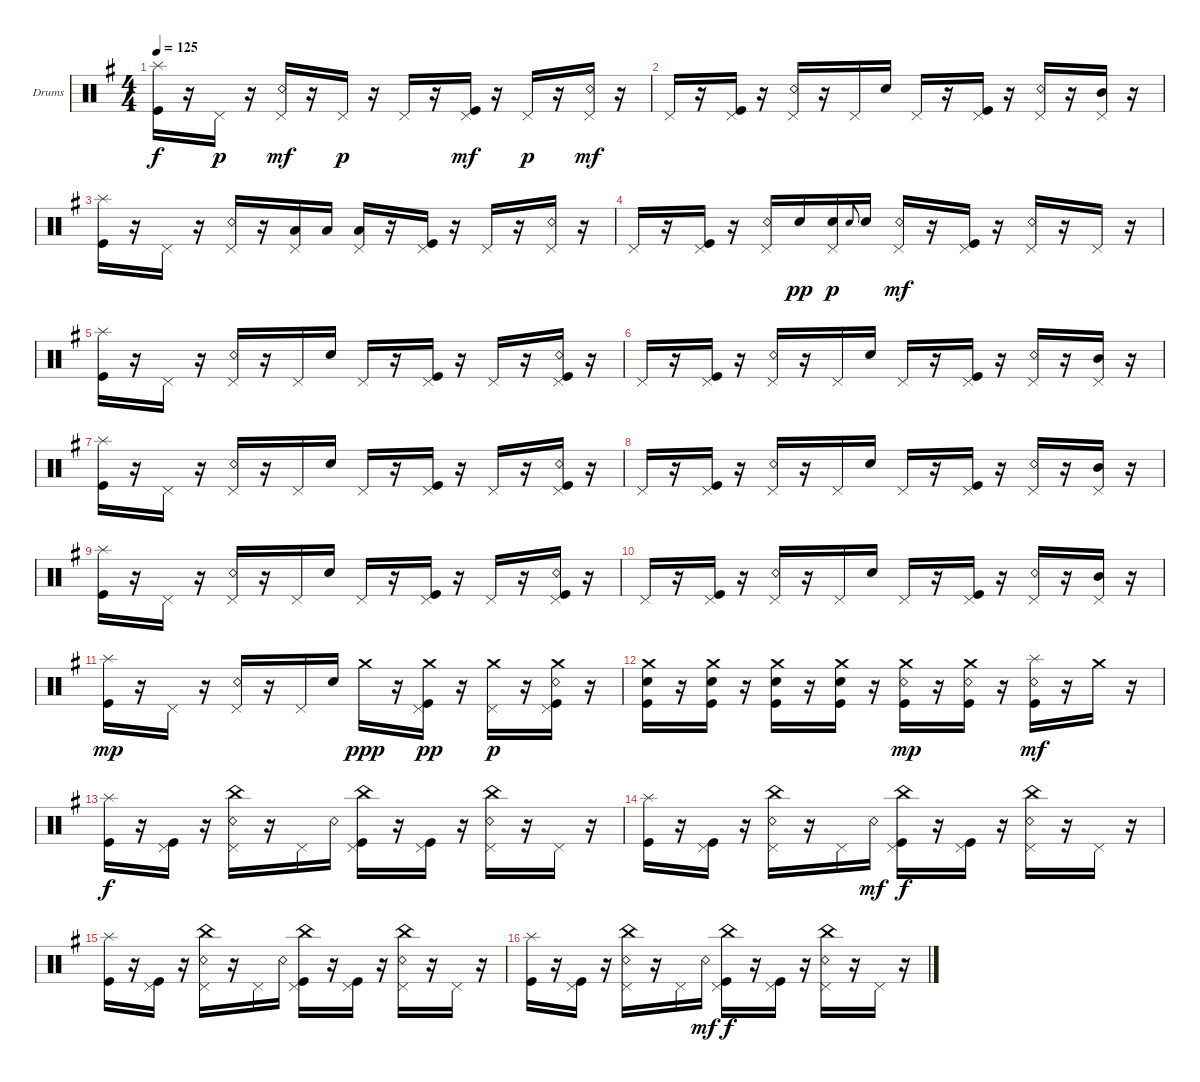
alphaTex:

\bracketExtendMode groupsimilarinstruments
\firstSystemTrackNameOrientation horizontal
\otherSystemsTrackNameOrientation horizontal
\track ("Drumkit" "Drums") {instrument percussion}
\staff {score}
\articulation defaults
\ts (4 4)
\tempo 125
\clef neutral
\ks g
("Kick (hit)" "Splash (hit)").16{dy f} r.16 "Pedal Hi-Hat (hit)".16{dy p} r.16 ("Pedal Hi-Hat (hit)" "Snare (rim shot)").16{dy mf} r.16 "Pedal Hi-Hat (hit)".16{dy p} r.16 "Pedal Hi-Hat (hit)".16 r.16 ("Pedal Hi-Hat (hit)" "Kick (hit)").16{dy mf} r.16 "Pedal Hi-Hat (hit)".16{dy p} r.16 ("Pedal Hi-Hat (hit)" "Snare (rim shot)").16{dy mf} r.16 |
"Pedal Hi-Hat (hit)".16 r.16 ("Pedal Hi-Hat (hit)" "Kick (hit)").16 r.16 ("Pedal Hi-Hat (hit)" "Snare (rim shot)").16 r.16 "Pedal Hi-Hat (hit)".16 "Snare (hit) 2".16 "Pedal Hi-Hat (hit)".16 r.16 ("Pedal Hi-Hat (hit)" "Kick (hit)").16 r.16 ("Pedal Hi-Hat (hit)" "Snare (rim shot)").16 r.16 ("Pedal Hi-Hat (hit)" "Mid Tom (hit)").16 r.16 |
("Kick (hit)" "Splash (hit)").16 r.16 "Pedal Hi-Hat (hit)".16 r.16 ("Pedal Hi-Hat (hit)" "Snare (rim shot)").16 r.16 ("Pedal Hi-Hat (hit)" "Low Tom (hit)").16 "Low Tom (hit)".16 ("Pedal Hi-Hat (hit)" "Low Tom (hit)").16 r.16 ("Pedal Hi-Hat (hit)" "Kick (hit)").16 r.16 "Pedal Hi-Hat (hit)".16 r.16 ("Pedal Hi-Hat (hit)" "Snare (rim shot)").16 r.16 |
"Pedal Hi-Hat (hit)".16 r.16 ("Pedal Hi-Hat (hit)" "Kick (hit)").16 r.16 ("Pedal Hi-Hat (hit)" "Snare (rim shot)").16 "Snare (hit) 2".16{dy pp} ("Pedal Hi-Hat (hit)" "Snare (hit) 2").16{dy p} "Snare (hit) 2".8{gr onbeat} "Snare (hit) 2".16 ("Pedal Hi-Hat (hit)" "Snare (rim shot)").16{dy mf} r.16 ("Pedal Hi-Hat (hit)" "Kick (hit)").16 r.16 ("Pedal Hi-Hat (hit)" "Snare (rim shot)").16 r.16 "Pedal Hi-Hat (hit)".16 r.16 |
("Kick (hit)" "Splash (hit)").16 r.16 "Pedal Hi-Hat (hit)".16 r.16 ("Pedal Hi-Hat (hit)" "Snare (rim shot)").16 r.16 "Pedal Hi-Hat (hit)".16 "Snare (hit) 2".16 "Pedal Hi-Hat (hit)".16 r.16 ("Pedal Hi-Hat (hit)" "Kick (hit)").16 r.16 "Pedal Hi-Hat (hit)".16 r.16 ("Pedal Hi-Hat (hit)" "Snare (rim shot)" "Kick (hit)").16 r.16 |
"Pedal Hi-Hat (hit)".16 r.16 ("Pedal Hi-Hat (hit)" "Kick (hit)").16 r.16 ("Pedal Hi-Hat (hit)" "Snare (rim shot)").16 r.16 "Pedal Hi-Hat (hit)".16 "Snare (hit) 2".16 "Pedal Hi-Hat (hit)".16 r.16 ("Pedal Hi-Hat (hit)" "Kick (hit)").16 r.16 ("Pedal Hi-Hat (hit)" "Snare (rim shot)").16 r.16 ("Pedal Hi-Hat (hit)" "Mid Tom (hit)").16 r.16 |
("Kick (hit)" "Splash (hit)").16 r.16 "Pedal Hi-Hat (hit)".16 r.16 ("Pedal Hi-Hat (hit)" "Snare (rim shot)").16 r.16 "Pedal Hi-Hat (hit)".16 "Snare (hit) 2".16 "Pedal Hi-Hat (hit)".16 r.16 ("Pedal Hi-Hat (hit)" "Kick (hit)").16 r.16 "Pedal Hi-Hat (hit)".16 r.16 ("Pedal Hi-Hat (hit)" "Snare (rim shot)" "Kick (hit)").16 r.16 |
"Pedal Hi-Hat (hit)".16 r.16 ("Pedal Hi-Hat (hit)" "Kick (hit)").16 r.16 ("Pedal Hi-Hat (hit)" "Snare (rim shot)").16 r.16 "Pedal Hi-Hat (hit)".16 "Snare (hit) 2".16 "Pedal Hi-Hat (hit)".16 r.16 ("Pedal Hi-Hat (hit)" "Kick (hit)").16 r.16 ("Pedal Hi-Hat (hit)" "Snare (rim shot)").16 r.16 ("Pedal Hi-Hat (hit)" "Mid Tom (hit)").16 r.16 |
("Kick (hit)" "Splash (hit)").16 r.16 "Pedal Hi-Hat (hit)".16 r.16 ("Pedal Hi-Hat (hit)" "Snare (rim shot)").16 r.16 "Pedal Hi-Hat (hit)".16 "Snare (hit) 2".16 "Pedal Hi-Hat (hit)".16 r.16 ("Pedal Hi-Hat (hit)" "Kick (hit)").16 r.16 "Pedal Hi-Hat (hit)".16 r.16 ("Pedal Hi-Hat (hit)" "Snare (rim shot)" "Kick (hit)").16 r.16 |
"Pedal Hi-Hat (hit)".16 r.16 ("Pedal Hi-Hat (hit)" "Kick (hit)").16 r.16 ("Pedal Hi-Hat (hit)" "Snare (rim shot)").16 r.16 "Pedal Hi-Hat (hit)".16 "Snare (hit) 2".16 "Pedal Hi-Hat (hit)".16 r.16 ("Pedal Hi-Hat (hit)" "Kick (hit)").16 r.16 ("Pedal Hi-Hat (hit)" "Snare (rim shot)").16 r.16 ("Pedal Hi-Hat (hit)" "Mid Tom (hit)").16 r.16 |
("Kick (hit)" "Splash (hit)").16{dy mp} r.16 "Pedal Hi-Hat (hit)".16 r.16 ("Pedal Hi-Hat (hit)" "Snare (rim shot)").16 r.16 "Pedal Hi-Hat (hit)".16 "Snare (hit) 2".16 "Crash medium (hit)".16{dy ppp} r.16 ("Pedal Hi-Hat (hit)" "Kick (hit)" "Crash medium (hit)").16{dy pp} r.16 ("Pedal Hi-Hat (hit)" "Crash medium (hit)").16{dy p} r.16 ("Pedal Hi-Hat (hit)" "Snare (rim shot)" "Kick (hit)" "Crash medium (hit)").16 r.16 |
("Crash medium (hit)" "Kick (hit)" "Snare (hit) 2").16 r.16 ("Crash medium (hit)" "Kick (hit)" "Snare (hit) 2").16 r.16 ("Crash medium (hit)" "Kick (hit)" "Snare (hit) 2").16 r.16 ("Crash medium (hit)" "Kick (hit)" "Snare (hit) 2").16 r.16 ("Crash medium (hit)" "Kick (hit)" "Snare (rim shot)").16{dy mp} r.16 ("Crash medium (hit)" "Kick (hit)" "Snare (rim shot)").16 r.16 ("Kick (hit)" "Snare (rim shot)" "Splash (hit)").16{dy mf} r.16 "Crash medium (hit)".16 r.16 |
("Kick (hit)" "Splash (hit)").16{dy f} r.16 ("Pedal Hi-Hat (hit)" "Kick (hit)").16 r.16 ("Pedal Hi-Hat (hit)" "Snare (rim shot)" "China (hit)").16 r.16 "Pedal Hi-Hat (hit)".16 "Snare (rim shot)".16 ("Pedal Hi-Hat (hit)" "China (hit)" "Kick (hit)").16 r.16 ("Pedal Hi-Hat (hit)" "Kick (hit)").16 r.16 ("Pedal Hi-Hat (hit)" "China (hit)" "Snare (rim shot)").16 r.16 "Pedal Hi-Hat (hit)".16 r.16 |
("Kick (hit)" "Splash (hit)").16 r.16 ("Pedal Hi-Hat (hit)" "Kick (hit)").16 r.16 ("Pedal Hi-Hat (hit)" "Snare (rim shot)" "China (hit)").16 r.16 "Pedal Hi-Hat (hit)".16 "Snare (rim shot)".16{dy mf} ("Pedal Hi-Hat (hit)" "China (hit)" "Kick (hit)").16{dy f} r.16 ("Pedal Hi-Hat (hit)" "Kick (hit)").16 r.16 ("Pedal Hi-Hat (hit)" "China (hit)" "Snare (rim shot)").16 r.16 "Pedal Hi-Hat (hit)".16 r.16 |
("Kick (hit)" "Splash (hit)").16 r.16 ("Pedal Hi-Hat (hit)" "Kick (hit)").16 r.16 ("Pedal Hi-Hat (hit)" "Snare (rim shot)" "China (hit)").16 r.16 "Pedal Hi-Hat (hit)".16 "Snare (rim shot)".16 ("Pedal Hi-Hat (hit)" "China (hit)" "Kick (hit)").16 r.16 ("Pedal Hi-Hat (hit)" "Kick (hit)").16 r.16 ("Pedal Hi-Hat (hit)" "China (hit)" "Snare (rim shot)").16 r.16 "Pedal Hi-Hat (hit)".16 r.16 |
("Kick (hit)" "Splash (hit)").16 r.16 ("Pedal Hi-Hat (hit)" "Kick (hit)").16 r.16 ("Pedal Hi-Hat (hit)" "Snare (rim shot)" "China (hit)").16 r.16 "Pedal Hi-Hat (hit)".16 "Snare (rim shot)".16{dy mf} ("Pedal Hi-Hat (hit)" "China (hit)" "Kick (hit)").16{dy f} r.16 ("Pedal Hi-Hat (hit)" "Kick (hit)").16 r.16 ("Pedal Hi-Hat (hit)" "China (hit)" "Snare (rim shot)").16 r.16 "Pedal Hi-Hat (hit)".16 r.16
